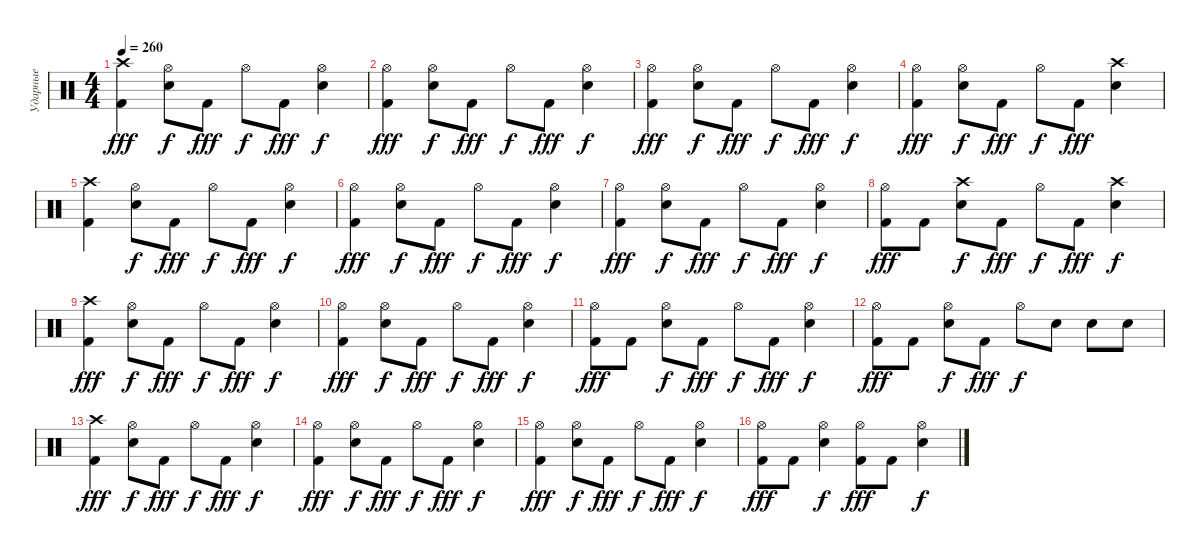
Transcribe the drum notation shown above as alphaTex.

\track ("Ударные" "Ударные") {instrument percussion}
\staff {score}
\articulation defaults
\ts (4 4)
\tempo 260
\clef neutral
\ks c
("Kick (hit) 2" "Crash high (hit)").4{dy fff} ("Snare (hit) 2" "Hi-Hat (open)").8{dy f} "Kick (hit) 2".8{dy fff} "Hi-Hat (open)".8{dy f} "Kick (hit) 2".8{dy fff} ("Snare (hit) 2" "Hi-Hat (open)").4{dy f} |
("Kick (hit) 2" "Hi-Hat (open)").4{dy fff} ("Snare (hit) 2" "Hi-Hat (open)").8{dy f} "Kick (hit) 2".8{dy fff} "Hi-Hat (open)".8{dy f} "Kick (hit) 2".8{dy fff} ("Snare (hit) 2" "Hi-Hat (open)").4{dy f} |
("Kick (hit) 2" "Hi-Hat (open)").4{dy fff} ("Snare (hit) 2" "Hi-Hat (open)").8{dy f} "Kick (hit) 2".8{dy fff} "Hi-Hat (open)".8{dy f} "Kick (hit) 2".8{dy fff} ("Snare (hit) 2" "Hi-Hat (open)").4{dy f} |
("Kick (hit) 2" "Hi-Hat (open)").4{dy fff} ("Snare (hit) 2" "Hi-Hat (open)").8{dy f} "Kick (hit) 2".8{dy fff} "Hi-Hat (open)".8{dy f} "Kick (hit) 2".8{dy fff} ("Snare (hit) 2" "Crash high (hit)").4 |
("Kick (hit) 2" "Crash high (hit)").4 ("Snare (hit) 2" "Hi-Hat (open)").8{dy f} "Kick (hit) 2".8{dy fff} "Hi-Hat (open)".8{dy f} "Kick (hit) 2".8{dy fff} ("Snare (hit) 2" "Hi-Hat (open)").4{dy f} |
("Kick (hit) 2" "Hi-Hat (open)").4{dy fff} ("Snare (hit) 2" "Hi-Hat (open)").8{dy f} "Kick (hit) 2".8{dy fff} "Hi-Hat (open)".8{dy f} "Kick (hit) 2".8{dy fff} ("Snare (hit) 2" "Hi-Hat (open)").4{dy f} |
("Kick (hit) 2" "Hi-Hat (open)").4{dy fff} ("Snare (hit) 2" "Hi-Hat (open)").8{dy f} "Kick (hit) 2".8{dy fff} "Hi-Hat (open)".8{dy f} "Kick (hit) 2".8{dy fff} ("Snare (hit) 2" "Hi-Hat (open)").4{dy f} |
("Kick (hit) 2" "Hi-Hat (open)").8{dy fff} "Kick (hit) 2".8 ("Snare (hit) 2" "Crash high (hit)").8{dy f} "Kick (hit) 2".8{dy fff} "Hi-Hat (open)".8{dy f} "Kick (hit) 2".8{dy fff} ("Snare (hit) 2" "Crash high (hit)").4{dy f} |
("Kick (hit) 2" "Crash high (hit)").4{dy fff} ("Snare (hit) 2" "Hi-Hat (open)").8{dy f} "Kick (hit) 2".8{dy fff} "Hi-Hat (open)".8{dy f} "Kick (hit) 2".8{dy fff} ("Snare (hit) 2" "Hi-Hat (open)").4{dy f} |
("Kick (hit) 2" "Hi-Hat (open)").4{dy fff} ("Snare (hit) 2" "Hi-Hat (open)").8{dy f} "Kick (hit) 2".8{dy fff} "Hi-Hat (open)".8{dy f} "Kick (hit) 2".8{dy fff} ("Snare (hit) 2" "Hi-Hat (open)").4{dy f} |
("Kick (hit) 2" "Hi-Hat (open)").8{dy fff} "Kick (hit) 2".8 ("Snare (hit) 2" "Hi-Hat (open)").8{dy f} "Kick (hit) 2".8{dy fff} "Hi-Hat (open)".8{dy f} "Kick (hit) 2".8{dy fff} ("Snare (hit) 2" "Hi-Hat (open)").4{dy f} |
("Kick (hit) 2" "Hi-Hat (open)").8{dy fff} "Kick (hit) 2".8 ("Snare (hit) 2" "Hi-Hat (open)").8{dy f} "Kick (hit) 2".8{dy fff} "Hi-Hat (open)".8{dy f} "Snare (hit) 2".8 "Snare (hit) 2".8 "Snare (hit) 2".8 |
("Kick (hit) 2" "Crash high (hit)").4{dy fff} ("Snare (hit) 2" "Hi-Hat (open)").8{dy f} "Kick (hit) 2".8{dy fff} "Hi-Hat (open)".8{dy f} "Kick (hit) 2".8{dy fff} ("Snare (hit) 2" "Hi-Hat (open)").4{dy f} |
("Kick (hit) 2" "Hi-Hat (open)").4{dy fff} ("Snare (hit) 2" "Hi-Hat (open)").8{dy f} "Kick (hit) 2".8{dy fff} "Hi-Hat (open)".8{dy f} "Kick (hit) 2".8{dy fff} ("Snare (hit) 2" "Hi-Hat (open)").4{dy f} |
("Kick (hit) 2" "Hi-Hat (open)").4{dy fff} ("Snare (hit) 2" "Hi-Hat (open)").8{dy f} "Kick (hit) 2".8{dy fff} "Hi-Hat (open)".8{dy f} "Kick (hit) 2".8{dy fff} ("Snare (hit) 2" "Hi-Hat (open)").4{dy f} |
("Kick (hit) 2" "Hi-Hat (open)").8{dy fff} "Kick (hit) 2".8 ("Snare (hit) 2" "Hi-Hat (open)").4{dy f} ("Kick (hit) 2" "Hi-Hat (open)").8{dy fff} "Kick (hit) 2".8 ("Snare (hit) 2" "Hi-Hat (open)").4{dy f}
